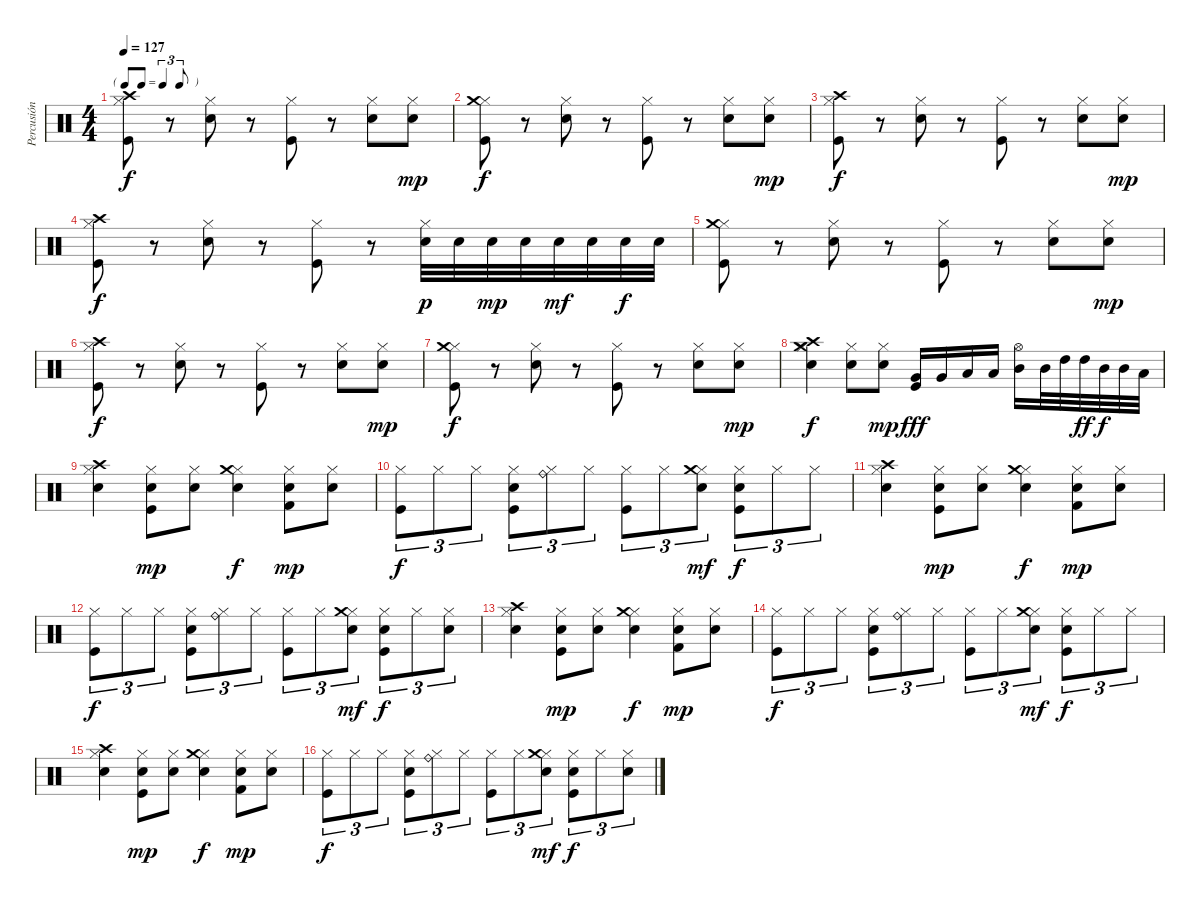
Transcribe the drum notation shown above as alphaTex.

\track ("Percusión" "Percusión") {instrument percussion}
\staff {score}
\articulation defaults
\ts (4 4)
\tf triplet8th
\tempo 127
\clef neutral
\ks c
("Hi-Hat (closed)" "Crash high (hit)" "Kick (hit)").8{dy f} r.8 ("Hi-Hat (closed)" "Snare (hit) 2").8 r.8 ("Hi-Hat (closed)" "Kick (hit)").8 r.8 ("Hi-Hat (closed)" "Snare (hit) 2").8 ("Hi-Hat (closed)" "Snare (hit) 2").8{dy mp} |
("Hi-Hat (closed)" "Crash medium (hit)" "Kick (hit)").8{dy f} r.8 ("Hi-Hat (closed)" "Snare (hit) 2").8 r.8 ("Hi-Hat (closed)" "Kick (hit)").8 r.8 ("Hi-Hat (closed)" "Snare (hit) 2").8 ("Hi-Hat (closed)" "Snare (hit) 2").8{dy mp} |
("Hi-Hat (closed)" "Crash high (hit)" "Kick (hit)").8{dy f} r.8 ("Hi-Hat (closed)" "Snare (hit) 2").8 r.8 ("Hi-Hat (closed)" "Kick (hit)").8 r.8 ("Hi-Hat (closed)" "Snare (hit) 2").8 ("Hi-Hat (closed)" "Snare (hit) 2").8{dy mp} |
("Hi-Hat (closed)" "Crash high (hit)" "Kick (hit)").8{dy f} r.8 ("Hi-Hat (closed)" "Snare (hit) 2").8 r.8 ("Hi-Hat (closed)" "Kick (hit)").8 r.8 ("Hi-Hat (closed)" "Snare (hit) 2").32{dy p} "Snare (hit) 2".32 "Snare (hit) 2".32{dy mp} "Snare (hit) 2".32 "Snare (hit) 2".32{dy mf} "Snare (hit) 2".32 "Snare (hit) 2".32{dy f} "Snare (hit) 2".32 |
("Hi-Hat (closed)" "Crash medium (hit)" "Kick (hit)").8 r.8 ("Hi-Hat (closed)" "Snare (hit) 2").8 r.8 ("Hi-Hat (closed)" "Kick (hit)").8 r.8 ("Hi-Hat (closed)" "Snare (hit) 2").8 ("Hi-Hat (closed)" "Snare (hit) 2").8{dy mp} |
("Hi-Hat (closed)" "Crash high (hit)" "Kick (hit)").8{dy f} r.8 ("Hi-Hat (closed)" "Snare (hit) 2").8 r.8 ("Hi-Hat (closed)" "Kick (hit)").8 r.8 ("Hi-Hat (closed)" "Snare (hit) 2").8 ("Hi-Hat (closed)" "Snare (hit) 2").8{dy mp} |
("Hi-Hat (closed)" "Crash medium (hit)" "Kick (hit)").8{dy f} r.8 ("Hi-Hat (closed)" "Snare (hit) 2").8 r.8 ("Hi-Hat (closed)" "Kick (hit)").8 r.8 ("Hi-Hat (closed)" "Snare (hit) 2").8 ("Hi-Hat (closed)" "Snare (hit) 2").8{dy mp} |
("Crash medium (hit)" "Crash high (hit)" "Snare (hit) 2" "Hi-Hat (closed)").4{dy f} ("Hi-Hat (closed)" "Snare (hit) 2").8 ("Hi-Hat (closed)" "Snare (hit) 2").8{dy mp} ("Very Low Tom (hit)" "Kick (hit)").16{dy fff} "Very Low Tom (hit)".16 "Low Tom (hit)".16 "Low Tom (hit)".16 ("Mid Tom (hit)" "Hi-Hat (open)").16 "Mid Tom (hit)".32 "High Tom (hit)".32 "High Tom (hit)".32{dy ff} "Mid Tom (hit)".32{dy f} "Mid Tom (hit)".32 "Low Tom (hit)".32 |
("Hi-Hat (closed)" "Crash high (hit)" "Snare (hit) 2").4 ("Hi-Hat (closed)" "Snare (hit) 2" "Kick (hit)").8{dy mp} ("Hi-Hat (closed)" "Snare (hit) 2").8 ("Hi-Hat (closed)" "Crash medium (hit)" "Snare (hit) 2").4{dy f} ("Hi-Hat (closed)" "Snare (hit) 2" "Kick (hit) 2").8{dy mp} ("Hi-Hat (closed)" "Snare (hit) 2").8 |
("Hi-Hat (closed)" "Kick (hit)").8{tu (3 2) dy f} "Hi-Hat (closed)".8{tu (3 2)} "Hi-Hat (closed)".8{tu (3 2)} ("Hi-Hat (closed)" "Snare (hit) 2" "Kick (hit)").8{tu (3 2)} ("Hi-Hat (closed)" "Ride (bell)").8{tu (3 2)} "Hi-Hat (closed)".8{tu (3 2)} ("Hi-Hat (closed)" "Kick (hit)").8{tu (3 2)} "Hi-Hat (closed)".8{tu (3 2)} ("Hi-Hat (closed)" "Crash medium (hit)" "Snare (hit) 2").8{tu (3 2) dy mf} ("Hi-Hat (closed)" "Snare (hit) 2" "Kick (hit)").8{tu (3 2) dy f} "Hi-Hat (closed)".8{tu (3 2)} "Hi-Hat (closed)".8{tu (3 2)} |
("Hi-Hat (closed)" "Crash high (hit)" "Snare (hit) 2").4 ("Hi-Hat (closed)" "Snare (hit) 2" "Kick (hit)").8{dy mp} ("Hi-Hat (closed)" "Snare (hit) 2").8 ("Hi-Hat (closed)" "Crash medium (hit)" "Snare (hit) 2").4{dy f} ("Hi-Hat (closed)" "Snare (hit) 2" "Kick (hit) 2").8{dy mp} ("Hi-Hat (closed)" "Snare (hit) 2").8 |
("Hi-Hat (closed)" "Kick (hit)").8{tu (3 2) dy f} "Hi-Hat (closed)".8{tu (3 2)} "Hi-Hat (closed)".8{tu (3 2)} ("Hi-Hat (closed)" "Snare (hit) 2" "Kick (hit)").8{tu (3 2)} ("Hi-Hat (closed)" "Ride (bell)").8{tu (3 2)} "Hi-Hat (closed)".8{tu (3 2)} ("Hi-Hat (closed)" "Kick (hit)").8{tu (3 2)} "Hi-Hat (closed)".8{tu (3 2)} ("Hi-Hat (closed)" "Crash medium (hit)" "Snare (hit) 2").8{tu (3 2) dy mf} ("Hi-Hat (closed)" "Snare (hit) 2" "Kick (hit)").8{tu (3 2) dy f} "Hi-Hat (closed)".8{tu (3 2)} ("Hi-Hat (closed)" "Snare (hit) 2").8{tu (3 2)} |
("Hi-Hat (closed)" "Crash high (hit)" "Snare (hit) 2").4 ("Hi-Hat (closed)" "Snare (hit) 2" "Kick (hit)").8{dy mp} ("Hi-Hat (closed)" "Snare (hit) 2").8 ("Hi-Hat (closed)" "Crash medium (hit)" "Snare (hit) 2").4{dy f} ("Hi-Hat (closed)" "Snare (hit) 2" "Kick (hit) 2").8{dy mp} ("Hi-Hat (closed)" "Snare (hit) 2").8 |
("Hi-Hat (closed)" "Kick (hit)").8{tu (3 2) dy f} "Hi-Hat (closed)".8{tu (3 2)} "Hi-Hat (closed)".8{tu (3 2)} ("Hi-Hat (closed)" "Snare (hit) 2" "Kick (hit)").8{tu (3 2)} ("Hi-Hat (closed)" "Ride (bell)").8{tu (3 2)} "Hi-Hat (closed)".8{tu (3 2)} ("Hi-Hat (closed)" "Kick (hit)").8{tu (3 2)} "Hi-Hat (closed)".8{tu (3 2)} ("Hi-Hat (closed)" "Crash medium (hit)" "Snare (hit) 2").8{tu (3 2) dy mf} ("Hi-Hat (closed)" "Snare (hit) 2" "Kick (hit)").8{tu (3 2) dy f} "Hi-Hat (closed)".8{tu (3 2)} "Hi-Hat (closed)".8{tu (3 2)} |
("Hi-Hat (closed)" "Crash high (hit)" "Snare (hit) 2").4 ("Hi-Hat (closed)" "Snare (hit) 2" "Kick (hit)").8{dy mp} ("Hi-Hat (closed)" "Snare (hit) 2").8 ("Hi-Hat (closed)" "Crash medium (hit)" "Snare (hit) 2").4{dy f} ("Hi-Hat (closed)" "Snare (hit) 2" "Kick (hit) 2").8{dy mp} ("Hi-Hat (closed)" "Snare (hit) 2").8 |
("Hi-Hat (closed)" "Kick (hit)").8{tu (3 2) dy f} "Hi-Hat (closed)".8{tu (3 2)} "Hi-Hat (closed)".8{tu (3 2)} ("Hi-Hat (closed)" "Snare (hit) 2" "Kick (hit)").8{tu (3 2)} ("Hi-Hat (closed)" "Ride (bell)").8{tu (3 2)} "Hi-Hat (closed)".8{tu (3 2)} ("Hi-Hat (closed)" "Kick (hit)").8{tu (3 2)} "Hi-Hat (closed)".8{tu (3 2)} ("Hi-Hat (closed)" "Crash medium (hit)" "Snare (hit) 2").8{tu (3 2) dy mf} ("Hi-Hat (closed)" "Snare (hit) 2" "Kick (hit)").8{tu (3 2) dy f} "Hi-Hat (closed)".8{tu (3 2)} ("Hi-Hat (closed)" "Snare (hit) 2").8{tu (3 2)}
